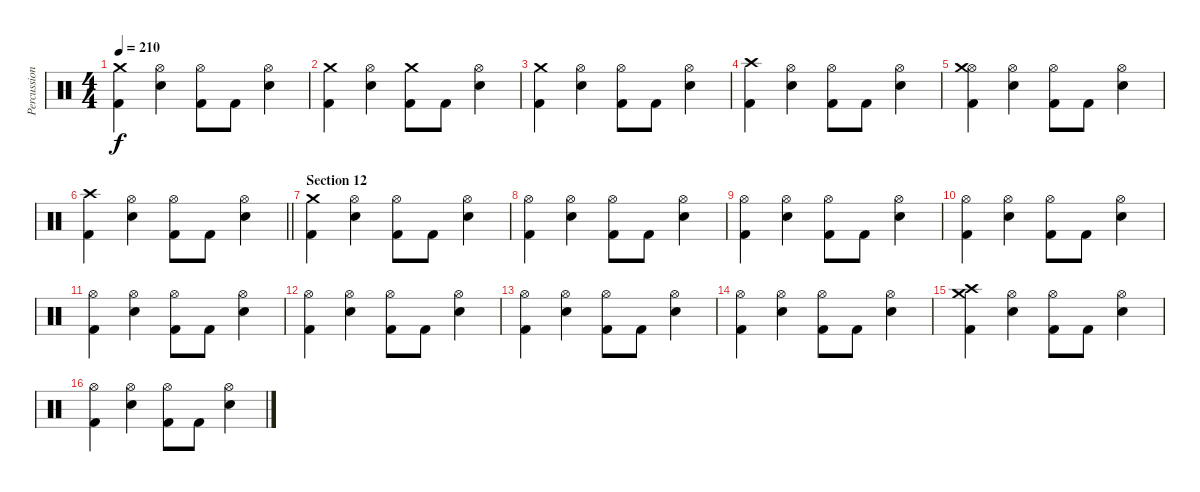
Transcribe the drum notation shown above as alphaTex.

\track ("Percussion" "Percussion") {instrument percussion}
\staff {score}
\articulation defaults
\ts (4 4)
\tempo 210
\clef neutral
\ks c
("Kick (hit) 2" "Crash medium (hit)").4{dy f} ("Electric Snare (hit)" "Hi-Hat (open)").4 ("Kick (hit) 2" "Hi-Hat (open)").8 "Kick (hit) 2".8 ("Electric Snare (hit)" "Hi-Hat (open)").4 |
("Kick (hit) 2" "Crash medium (hit)").4 ("Electric Snare (hit)" "Hi-Hat (open)").4 ("Kick (hit) 2" "Crash medium (hit)").8 "Kick (hit) 2".8 ("Electric Snare (hit)" "Hi-Hat (open)").4 |
("Kick (hit) 2" "Crash medium (hit)").4 ("Electric Snare (hit)" "Hi-Hat (open)").4 ("Kick (hit) 2" "Hi-Hat (open)").8 "Kick (hit) 2".8 ("Electric Snare (hit)" "Hi-Hat (open)").4 |
("Kick (hit) 2" "Crash high (hit)").4 ("Electric Snare (hit)" "Hi-Hat (open)").4 ("Kick (hit) 2" "Hi-Hat (open)").8 "Kick (hit) 2".8 ("Electric Snare (hit)" "Hi-Hat (open)").4 |
("Kick (hit) 2" "Hi-Hat (open)" "Crash medium (hit)").4 ("Electric Snare (hit)" "Hi-Hat (open)").4 ("Kick (hit) 2" "Hi-Hat (open)").8 "Kick (hit) 2".8 ("Electric Snare (hit)" "Hi-Hat (open)").4 |
\barLineRight lightlight
("Kick (hit) 2" "Crash high (hit)").4 ("Electric Snare (hit)" "Hi-Hat (open)").4 ("Kick (hit) 2" "Hi-Hat (open)").8 "Kick (hit) 2".8 ("Electric Snare (hit)" "Hi-Hat (open)").4 |
\section ("" "Section 12")
("Kick (hit) 2" "Crash medium (hit)").4 ("Electric Snare (hit)" "Hi-Hat (open)").4 ("Kick (hit) 2" "Hi-Hat (open)").8 "Kick (hit) 2".8 ("Electric Snare (hit)" "Hi-Hat (open)").4 |
("Kick (hit) 2" "Hi-Hat (open)").4 ("Electric Snare (hit)" "Hi-Hat (open)").4 ("Kick (hit) 2" "Hi-Hat (open)").8 "Kick (hit) 2".8 ("Electric Snare (hit)" "Hi-Hat (open)").4 |
("Kick (hit) 2" "Hi-Hat (open)").4 ("Electric Snare (hit)" "Hi-Hat (open)").4 ("Kick (hit) 2" "Hi-Hat (open)").8 "Kick (hit) 2".8 ("Electric Snare (hit)" "Hi-Hat (open)").4 |
("Kick (hit) 2" "Hi-Hat (open)").4 ("Electric Snare (hit)" "Hi-Hat (open)").4 ("Kick (hit) 2" "Hi-Hat (open)").8 "Kick (hit) 2".8 ("Electric Snare (hit)" "Hi-Hat (open)").4 |
("Kick (hit) 2" "Hi-Hat (open)").4 ("Electric Snare (hit)" "Hi-Hat (open)").4 ("Kick (hit) 2" "Hi-Hat (open)").8 "Kick (hit) 2".8 ("Electric Snare (hit)" "Hi-Hat (open)").4 |
("Kick (hit) 2" "Hi-Hat (open)").4 ("Electric Snare (hit)" "Hi-Hat (open)").4 ("Kick (hit) 2" "Hi-Hat (open)").8 "Kick (hit) 2".8 ("Electric Snare (hit)" "Hi-Hat (open)").4 |
("Kick (hit) 2" "Hi-Hat (open)").4 ("Electric Snare (hit)" "Hi-Hat (open)").4 ("Kick (hit) 2" "Hi-Hat (open)").8 "Kick (hit) 2".8 ("Electric Snare (hit)" "Hi-Hat (open)").4 |
("Kick (hit) 2" "Hi-Hat (open)").4 ("Electric Snare (hit)" "Hi-Hat (open)").4 ("Kick (hit) 2" "Hi-Hat (open)").8 "Kick (hit) 2".8 ("Electric Snare (hit)" "Hi-Hat (open)").4 |
("Kick (hit) 2" "Crash medium (hit)" "Crash high (hit)").4 ("Electric Snare (hit)" "Hi-Hat (open)").4 ("Kick (hit) 2" "Hi-Hat (open)").8 "Kick (hit) 2".8 ("Electric Snare (hit)" "Hi-Hat (open)").4 |
("Kick (hit) 2" "Hi-Hat (open)").4 ("Electric Snare (hit)" "Hi-Hat (open)").4 ("Kick (hit) 2" "Hi-Hat (open)").8 "Kick (hit) 2".8 ("Electric Snare (hit)" "Hi-Hat (open)").4
